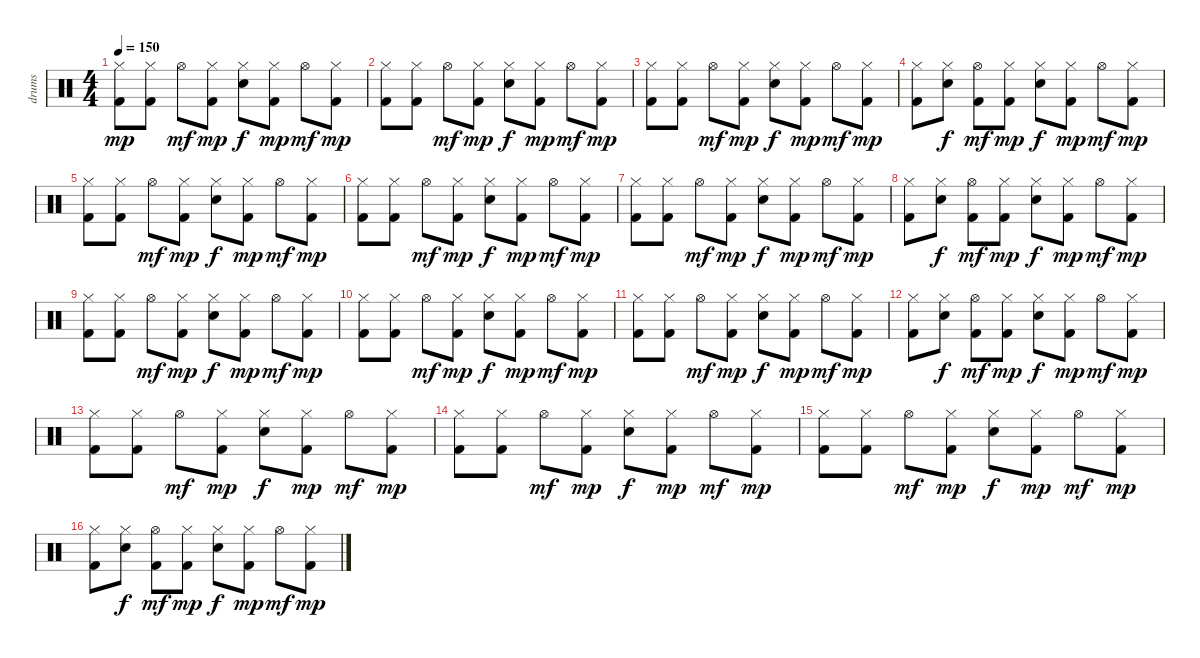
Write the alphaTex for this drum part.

\track ("drums" "drums") {instrument percussion}
\staff {score}
\articulation defaults
\ts (4 4)
\tempo 150
\clef neutral
\ks c
("Hi-Hat (closed)" "Kick (hit) 2").8{dy mp} ("Hi-Hat (closed)" "Kick (hit) 2").8 "Hi-Hat (open)".8{dy mf} ("Hi-Hat (closed)" "Kick (hit) 2").8{dy mp} ("Hi-Hat (closed)" "Electric Snare (hit)").8{dy f} ("Hi-Hat (closed)" "Kick (hit) 2").8{dy mp} "Hi-Hat (open)".8{dy mf} ("Hi-Hat (closed)" "Kick (hit) 2").8{dy mp} |
("Hi-Hat (closed)" "Kick (hit) 2").8 ("Hi-Hat (closed)" "Kick (hit) 2").8 "Hi-Hat (open)".8{dy mf} ("Hi-Hat (closed)" "Kick (hit) 2").8{dy mp} ("Hi-Hat (closed)" "Electric Snare (hit)").8{dy f} ("Hi-Hat (closed)" "Kick (hit) 2").8{dy mp} "Hi-Hat (open)".8{dy mf} ("Hi-Hat (closed)" "Kick (hit) 2").8{dy mp} |
("Hi-Hat (closed)" "Kick (hit) 2").8 ("Hi-Hat (closed)" "Kick (hit) 2").8 "Hi-Hat (open)".8{dy mf} ("Hi-Hat (closed)" "Kick (hit) 2").8{dy mp} ("Hi-Hat (closed)" "Electric Snare (hit)").8{dy f} ("Hi-Hat (closed)" "Kick (hit) 2").8{dy mp} "Hi-Hat (open)".8{dy mf} ("Hi-Hat (closed)" "Kick (hit) 2").8{dy mp} |
("Hi-Hat (closed)" "Kick (hit) 2").8 ("Hi-Hat (closed)" "Electric Snare (hit)").8{dy f} ("Hi-Hat (open)" "Kick (hit) 2").8{dy mf} ("Hi-Hat (closed)" "Kick (hit) 2").8{dy mp} ("Hi-Hat (closed)" "Electric Snare (hit)").8{dy f} ("Hi-Hat (closed)" "Kick (hit) 2").8{dy mp} "Hi-Hat (open)".8{dy mf} ("Hi-Hat (closed)" "Kick (hit) 2").8{dy mp} |
("Hi-Hat (closed)" "Kick (hit) 2").8 ("Hi-Hat (closed)" "Kick (hit) 2").8 "Hi-Hat (open)".8{dy mf} ("Hi-Hat (closed)" "Kick (hit) 2").8{dy mp} ("Hi-Hat (closed)" "Electric Snare (hit)").8{dy f} ("Hi-Hat (closed)" "Kick (hit) 2").8{dy mp} "Hi-Hat (open)".8{dy mf} ("Hi-Hat (closed)" "Kick (hit) 2").8{dy mp} |
("Hi-Hat (closed)" "Kick (hit) 2").8 ("Hi-Hat (closed)" "Kick (hit) 2").8 "Hi-Hat (open)".8{dy mf} ("Hi-Hat (closed)" "Kick (hit) 2").8{dy mp} ("Hi-Hat (closed)" "Electric Snare (hit)").8{dy f} ("Hi-Hat (closed)" "Kick (hit) 2").8{dy mp} "Hi-Hat (open)".8{dy mf} ("Hi-Hat (closed)" "Kick (hit) 2").8{dy mp} |
("Hi-Hat (closed)" "Kick (hit) 2").8 ("Hi-Hat (closed)" "Kick (hit) 2").8 "Hi-Hat (open)".8{dy mf} ("Hi-Hat (closed)" "Kick (hit) 2").8{dy mp} ("Hi-Hat (closed)" "Electric Snare (hit)").8{dy f} ("Hi-Hat (closed)" "Kick (hit) 2").8{dy mp} "Hi-Hat (open)".8{dy mf} ("Hi-Hat (closed)" "Kick (hit) 2").8{dy mp} |
("Hi-Hat (closed)" "Kick (hit) 2").8 ("Hi-Hat (closed)" "Electric Snare (hit)").8{dy f} ("Hi-Hat (open)" "Kick (hit) 2").8{dy mf} ("Hi-Hat (closed)" "Kick (hit) 2").8{dy mp} ("Hi-Hat (closed)" "Electric Snare (hit)").8{dy f} ("Hi-Hat (closed)" "Kick (hit) 2").8{dy mp} "Hi-Hat (open)".8{dy mf} ("Hi-Hat (closed)" "Kick (hit) 2").8{dy mp} |
("Hi-Hat (closed)" "Kick (hit) 2").8 ("Hi-Hat (closed)" "Kick (hit) 2").8 "Hi-Hat (open)".8{dy mf} ("Hi-Hat (closed)" "Kick (hit) 2").8{dy mp} ("Hi-Hat (closed)" "Electric Snare (hit)").8{dy f} ("Hi-Hat (closed)" "Kick (hit) 2").8{dy mp} "Hi-Hat (open)".8{dy mf} ("Hi-Hat (closed)" "Kick (hit) 2").8{dy mp} |
("Hi-Hat (closed)" "Kick (hit) 2").8 ("Hi-Hat (closed)" "Kick (hit) 2").8 "Hi-Hat (open)".8{dy mf} ("Hi-Hat (closed)" "Kick (hit) 2").8{dy mp} ("Hi-Hat (closed)" "Electric Snare (hit)").8{dy f} ("Hi-Hat (closed)" "Kick (hit) 2").8{dy mp} "Hi-Hat (open)".8{dy mf} ("Hi-Hat (closed)" "Kick (hit) 2").8{dy mp} |
("Hi-Hat (closed)" "Kick (hit) 2").8 ("Hi-Hat (closed)" "Kick (hit) 2").8 "Hi-Hat (open)".8{dy mf} ("Hi-Hat (closed)" "Kick (hit) 2").8{dy mp} ("Hi-Hat (closed)" "Electric Snare (hit)").8{dy f} ("Hi-Hat (closed)" "Kick (hit) 2").8{dy mp} "Hi-Hat (open)".8{dy mf} ("Hi-Hat (closed)" "Kick (hit) 2").8{dy mp} |
("Hi-Hat (closed)" "Kick (hit) 2").8 ("Hi-Hat (closed)" "Electric Snare (hit)").8{dy f} ("Hi-Hat (open)" "Kick (hit) 2").8{dy mf} ("Hi-Hat (closed)" "Kick (hit) 2").8{dy mp} ("Hi-Hat (closed)" "Electric Snare (hit)").8{dy f} ("Hi-Hat (closed)" "Kick (hit) 2").8{dy mp} "Hi-Hat (open)".8{dy mf} ("Hi-Hat (closed)" "Kick (hit) 2").8{dy mp} |
("Hi-Hat (closed)" "Kick (hit) 2").8 ("Hi-Hat (closed)" "Kick (hit) 2").8 "Hi-Hat (open)".8{dy mf} ("Hi-Hat (closed)" "Kick (hit) 2").8{dy mp} ("Hi-Hat (closed)" "Electric Snare (hit)").8{dy f} ("Hi-Hat (closed)" "Kick (hit) 2").8{dy mp} "Hi-Hat (open)".8{dy mf} ("Hi-Hat (closed)" "Kick (hit) 2").8{dy mp} |
("Hi-Hat (closed)" "Kick (hit) 2").8 ("Hi-Hat (closed)" "Kick (hit) 2").8 "Hi-Hat (open)".8{dy mf} ("Hi-Hat (closed)" "Kick (hit) 2").8{dy mp} ("Hi-Hat (closed)" "Electric Snare (hit)").8{dy f} ("Hi-Hat (closed)" "Kick (hit) 2").8{dy mp} "Hi-Hat (open)".8{dy mf} ("Hi-Hat (closed)" "Kick (hit) 2").8{dy mp} |
("Hi-Hat (closed)" "Kick (hit) 2").8 ("Hi-Hat (closed)" "Kick (hit) 2").8 "Hi-Hat (open)".8{dy mf} ("Hi-Hat (closed)" "Kick (hit) 2").8{dy mp} ("Hi-Hat (closed)" "Electric Snare (hit)").8{dy f} ("Hi-Hat (closed)" "Kick (hit) 2").8{dy mp} "Hi-Hat (open)".8{dy mf} ("Hi-Hat (closed)" "Kick (hit) 2").8{dy mp} |
("Hi-Hat (closed)" "Kick (hit) 2").8 ("Hi-Hat (closed)" "Electric Snare (hit)").8{dy f} ("Hi-Hat (open)" "Kick (hit) 2").8{dy mf} ("Hi-Hat (closed)" "Kick (hit) 2").8{dy mp} ("Hi-Hat (closed)" "Electric Snare (hit)").8{dy f} ("Hi-Hat (closed)" "Kick (hit) 2").8{dy mp} "Hi-Hat (open)".8{dy mf} ("Hi-Hat (closed)" "Kick (hit) 2").8{dy mp}
